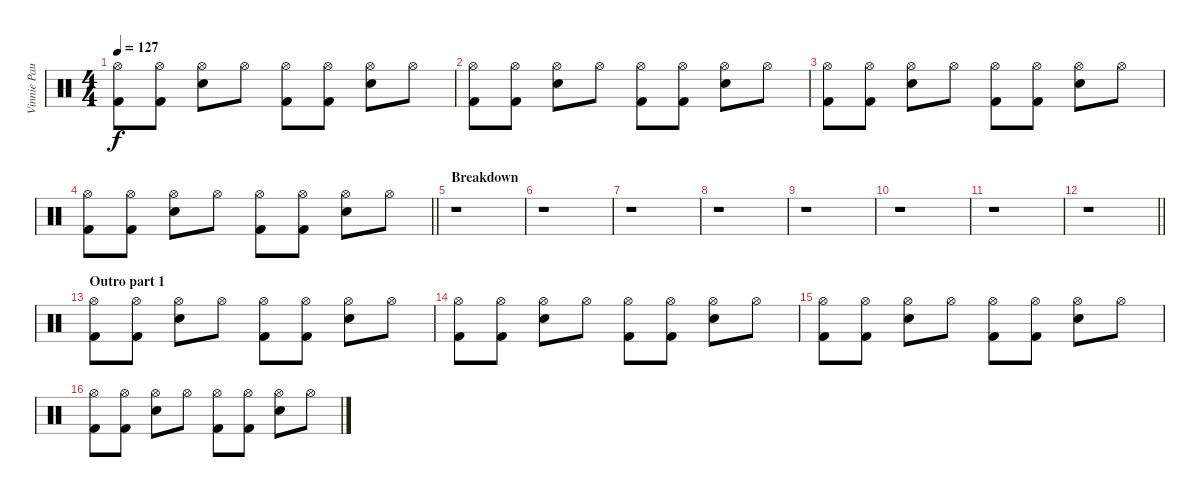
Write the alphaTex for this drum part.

\track ("Vinnie Paul" "Vinnie Pau") {instrument percussion}
\staff {score}
\articulation defaults
\ts (4 4)
\tempo 127
\clef neutral
\ks c
("Kick (hit) 2" "Hi-Hat (open)").8{dy f} ("Kick (hit) 2" "Hi-Hat (open)").8 ("Snare (hit) 2" "Hi-Hat (open)").8 "Hi-Hat (open)".8 ("Kick (hit) 2" "Hi-Hat (open)").8 ("Kick (hit) 2" "Hi-Hat (open)").8 ("Snare (hit) 2" "Hi-Hat (open)").8 "Hi-Hat (open)".8 |
("Kick (hit) 2" "Hi-Hat (open)").8 ("Kick (hit) 2" "Hi-Hat (open)").8 ("Snare (hit) 2" "Hi-Hat (open)").8 "Hi-Hat (open)".8 ("Kick (hit) 2" "Hi-Hat (open)").8 ("Kick (hit) 2" "Hi-Hat (open)").8 ("Snare (hit) 2" "Hi-Hat (open)").8 "Hi-Hat (open)".8 |
("Kick (hit) 2" "Hi-Hat (open)").8 ("Kick (hit) 2" "Hi-Hat (open)").8 ("Snare (hit) 2" "Hi-Hat (open)").8 "Hi-Hat (open)".8 ("Kick (hit) 2" "Hi-Hat (open)").8 ("Kick (hit) 2" "Hi-Hat (open)").8 ("Snare (hit) 2" "Hi-Hat (open)").8 "Hi-Hat (open)".8 |
\barLineRight lightlight
("Kick (hit) 2" "Hi-Hat (open)").8 ("Kick (hit) 2" "Hi-Hat (open)").8 ("Snare (hit) 2" "Hi-Hat (open)").8 "Hi-Hat (open)".8 ("Kick (hit) 2" "Hi-Hat (open)").8 ("Kick (hit) 2" "Hi-Hat (open)").8 ("Snare (hit) 2" "Hi-Hat (open)").8 "Hi-Hat (open)".8 |
\section ("" "Breakdown")
r.1 |
r.1 |
r.1 |
r.1 |
r.1 |
r.1 |
r.1 |
\barLineRight lightlight
r.1 |
\section ("" "Outro part 1")
("Kick (hit) 2" "Hi-Hat (open)").8 ("Kick (hit) 2" "Hi-Hat (open)").8 ("Snare (hit) 2" "Hi-Hat (open)").8 "Hi-Hat (open)".8 ("Kick (hit) 2" "Hi-Hat (open)").8 ("Kick (hit) 2" "Hi-Hat (open)").8 ("Snare (hit) 2" "Hi-Hat (open)").8 "Hi-Hat (open)".8 |
("Kick (hit) 2" "Hi-Hat (open)").8 ("Kick (hit) 2" "Hi-Hat (open)").8 ("Snare (hit) 2" "Hi-Hat (open)").8 "Hi-Hat (open)".8 ("Kick (hit) 2" "Hi-Hat (open)").8 ("Kick (hit) 2" "Hi-Hat (open)").8 ("Snare (hit) 2" "Hi-Hat (open)").8 "Hi-Hat (open)".8 |
("Kick (hit) 2" "Hi-Hat (open)").8 ("Kick (hit) 2" "Hi-Hat (open)").8 ("Snare (hit) 2" "Hi-Hat (open)").8 "Hi-Hat (open)".8 ("Kick (hit) 2" "Hi-Hat (open)").8 ("Kick (hit) 2" "Hi-Hat (open)").8 ("Snare (hit) 2" "Hi-Hat (open)").8 "Hi-Hat (open)".8 |
("Kick (hit) 2" "Hi-Hat (open)").8 ("Kick (hit) 2" "Hi-Hat (open)").8 ("Snare (hit) 2" "Hi-Hat (open)").8 "Hi-Hat (open)".8 ("Kick (hit) 2" "Hi-Hat (open)").8 ("Kick (hit) 2" "Hi-Hat (open)").8 ("Snare (hit) 2" "Hi-Hat (open)").8 "Hi-Hat (open)".8
